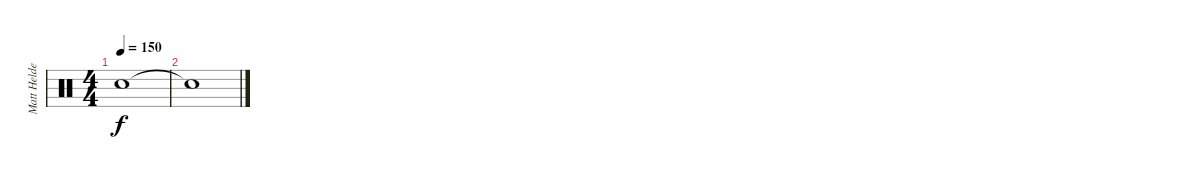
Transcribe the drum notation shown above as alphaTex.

\track ("Matt Helders" "Matt Helde") {instrument percussion}
\staff {score}
\articulation defaults
\ts (4 4)
\tempo 150
\clef neutral
\ks c "Snare (hit)"{t}.1{dy f}
|
"Snare (hit)"{t}.1
